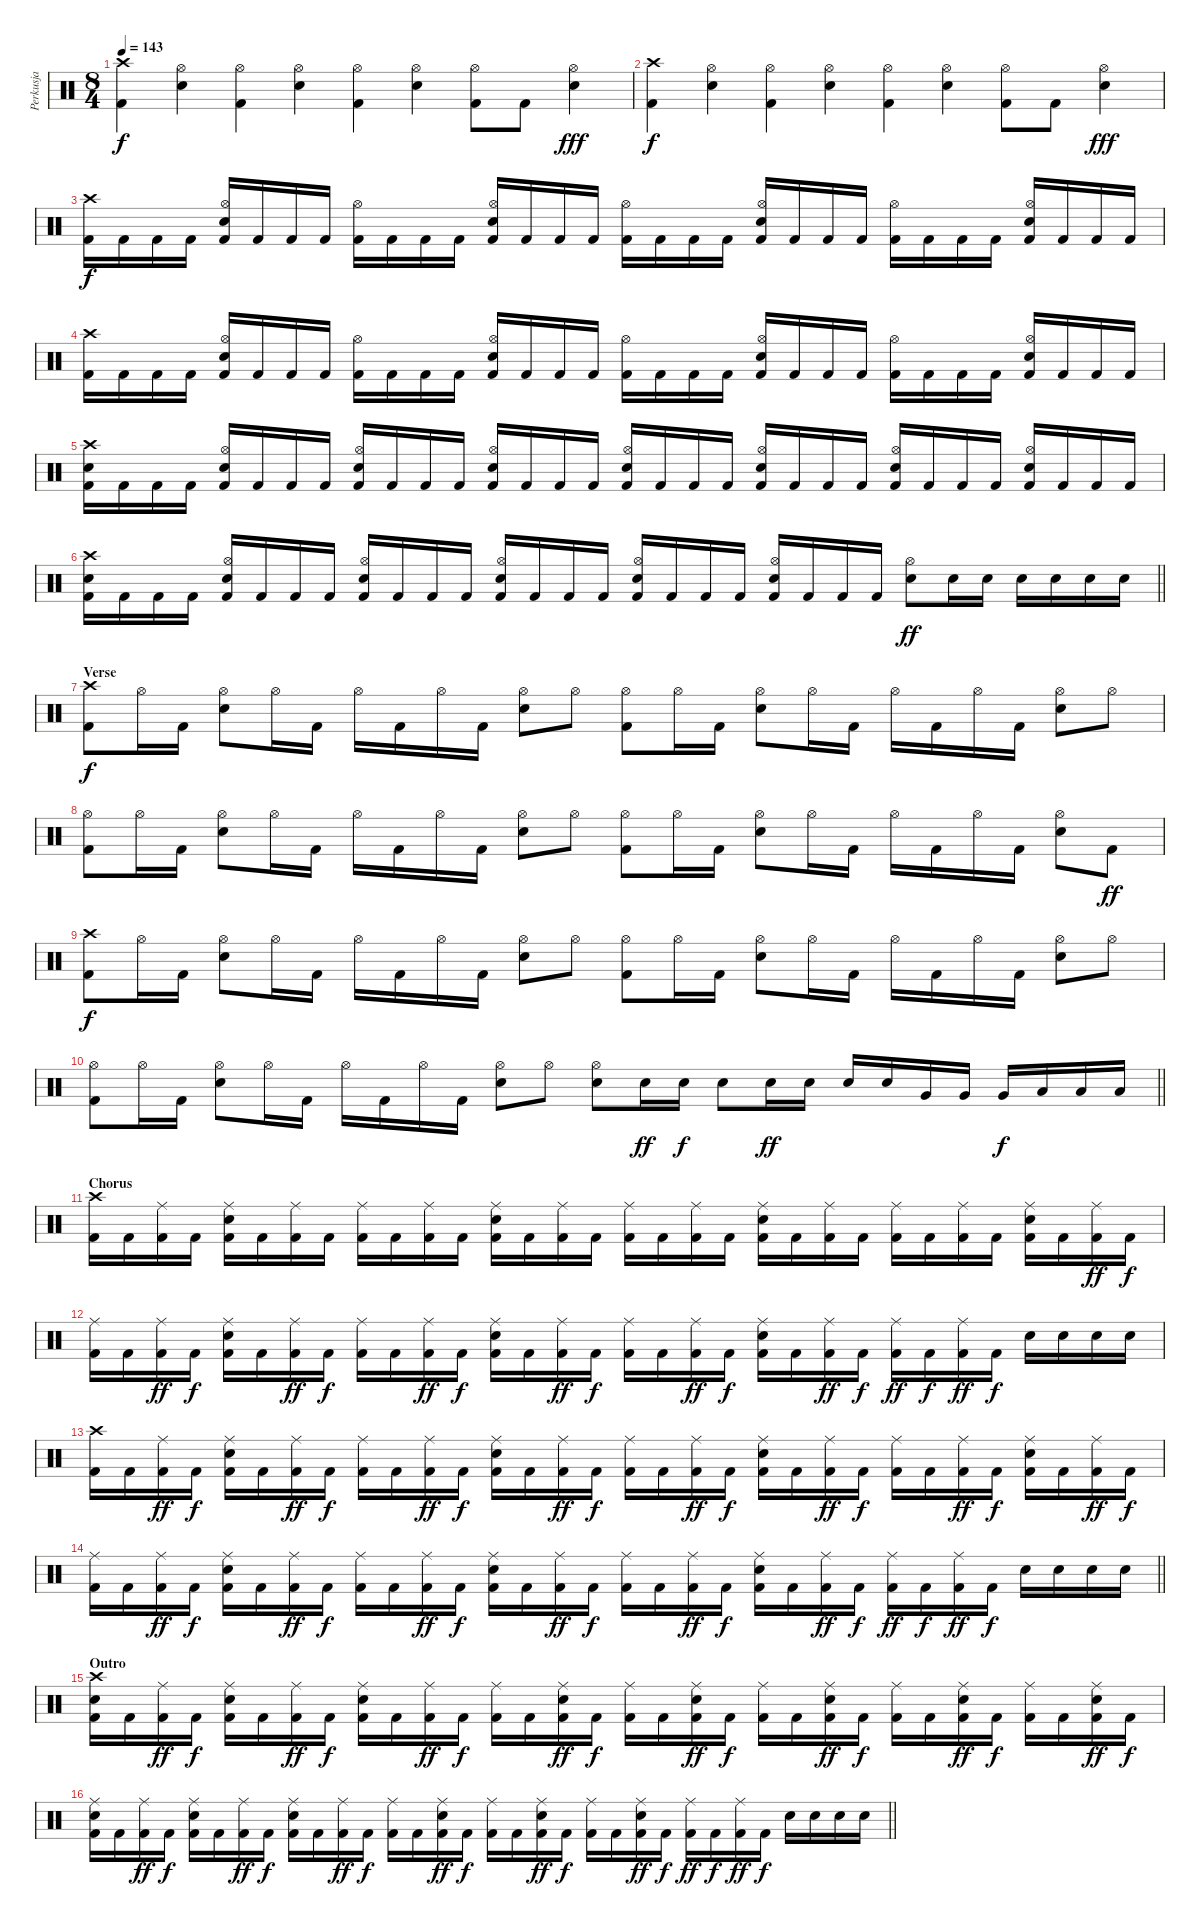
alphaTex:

\track ("Perkusja" "Perkusja") {instrument percussion}
\staff {score}
\articulation defaults
\ts (8 4)
\tempo 143
\clef neutral
\ks c
("Crash high (hit)" "Kick (hit) 2").4{dy f} ("Hi-Hat (open)" "Snare (hit) 2").4 ("Hi-Hat (open)" "Kick (hit) 2").4 ("Hi-Hat (open)" "Snare (hit) 2").4 ("Hi-Hat (open)" "Kick (hit) 2").4 ("Hi-Hat (open)" "Snare (hit) 2").4 ("Hi-Hat (open)" "Kick (hit) 2").8 "Kick (hit) 2".8 ("Hi-Hat (open)" "Snare (hit) 2").4{dy fff} |
("Crash high (hit)" "Kick (hit) 2").4{dy f} ("Hi-Hat (open)" "Snare (hit) 2").4 ("Hi-Hat (open)" "Kick (hit) 2").4 ("Hi-Hat (open)" "Snare (hit) 2").4 ("Hi-Hat (open)" "Kick (hit) 2").4 ("Hi-Hat (open)" "Snare (hit) 2").4 ("Hi-Hat (open)" "Kick (hit) 2").8 "Kick (hit) 2".8 ("Hi-Hat (open)" "Snare (hit) 2").4{dy fff} |
("Crash high (hit)" "Kick (hit) 2").16{dy f} "Kick (hit) 2".16 "Kick (hit) 2".16 "Kick (hit) 2".16 ("Hi-Hat (open)" "Snare (hit) 2" "Kick (hit) 2").16 "Kick (hit) 2".16 "Kick (hit) 2".16 "Kick (hit) 2".16 ("Hi-Hat (open)" "Kick (hit) 2").16 "Kick (hit) 2".16 "Kick (hit) 2".16 "Kick (hit) 2".16 ("Hi-Hat (open)" "Snare (hit) 2" "Kick (hit) 2").16 "Kick (hit) 2".16 "Kick (hit) 2".16 "Kick (hit) 2".16 ("Hi-Hat (open)" "Kick (hit) 2").16 "Kick (hit) 2".16 "Kick (hit) 2".16 "Kick (hit) 2".16 ("Hi-Hat (open)" "Snare (hit) 2" "Kick (hit) 2").16 "Kick (hit) 2".16 "Kick (hit) 2".16 "Kick (hit) 2".16 ("Hi-Hat (open)" "Kick (hit) 2").16 "Kick (hit) 2".16 "Kick (hit) 2".16 "Kick (hit) 2".16 ("Hi-Hat (open)" "Snare (hit) 2" "Kick (hit) 2").16 "Kick (hit) 2".16 "Kick (hit) 2".16 "Kick (hit) 2".16 |
("Crash high (hit)" "Kick (hit) 2").16 "Kick (hit) 2".16 "Kick (hit) 2".16 "Kick (hit) 2".16 ("Hi-Hat (open)" "Snare (hit) 2" "Kick (hit) 2").16 "Kick (hit) 2".16 "Kick (hit) 2".16 "Kick (hit) 2".16 ("Hi-Hat (open)" "Kick (hit) 2").16 "Kick (hit) 2".16 "Kick (hit) 2".16 "Kick (hit) 2".16 ("Hi-Hat (open)" "Snare (hit) 2" "Kick (hit) 2").16 "Kick (hit) 2".16 "Kick (hit) 2".16 "Kick (hit) 2".16 ("Hi-Hat (open)" "Kick (hit) 2").16 "Kick (hit) 2".16 "Kick (hit) 2".16 "Kick (hit) 2".16 ("Hi-Hat (open)" "Snare (hit) 2" "Kick (hit) 2").16 "Kick (hit) 2".16 "Kick (hit) 2".16 "Kick (hit) 2".16 ("Hi-Hat (open)" "Kick (hit) 2").16 "Kick (hit) 2".16 "Kick (hit) 2".16 "Kick (hit) 2".16 ("Hi-Hat (open)" "Snare (hit) 2" "Kick (hit) 2").16 "Kick (hit) 2".16 "Kick (hit) 2".16 "Kick (hit) 2".16 |
("Crash high (hit)" "Snare (hit) 2" "Kick (hit) 2").16 "Kick (hit) 2".16 "Kick (hit) 2".16 "Kick (hit) 2".16 ("Hi-Hat (open)" "Snare (hit) 2" "Kick (hit) 2").16 "Kick (hit) 2".16 "Kick (hit) 2".16 "Kick (hit) 2".16 ("Hi-Hat (open)" "Snare (hit) 2" "Kick (hit) 2").16 "Kick (hit) 2".16 "Kick (hit) 2".16 "Kick (hit) 2".16 ("Hi-Hat (open)" "Snare (hit) 2" "Kick (hit) 2").16 "Kick (hit) 2".16 "Kick (hit) 2".16 "Kick (hit) 2".16 ("Hi-Hat (open)" "Snare (hit) 2" "Kick (hit) 2").16 "Kick (hit) 2".16 "Kick (hit) 2".16 "Kick (hit) 2".16 ("Hi-Hat (open)" "Snare (hit) 2" "Kick (hit) 2").16 "Kick (hit) 2".16 "Kick (hit) 2".16 "Kick (hit) 2".16 ("Hi-Hat (open)" "Snare (hit) 2" "Kick (hit) 2").16 "Kick (hit) 2".16 "Kick (hit) 2".16 "Kick (hit) 2".16 ("Hi-Hat (open)" "Snare (hit) 2" "Kick (hit) 2").16 "Kick (hit) 2".16 "Kick (hit) 2".16 "Kick (hit) 2".16 |
\barLineRight lightlight
("Crash high (hit)" "Snare (hit) 2" "Kick (hit) 2").16 "Kick (hit) 2".16 "Kick (hit) 2".16 "Kick (hit) 2".16 ("Hi-Hat (open)" "Snare (hit) 2" "Kick (hit) 2").16 "Kick (hit) 2".16 "Kick (hit) 2".16 "Kick (hit) 2".16 ("Hi-Hat (open)" "Snare (hit) 2" "Kick (hit) 2").16 "Kick (hit) 2".16 "Kick (hit) 2".16 "Kick (hit) 2".16 ("Hi-Hat (open)" "Snare (hit) 2" "Kick (hit) 2").16 "Kick (hit) 2".16 "Kick (hit) 2".16 "Kick (hit) 2".16 ("Hi-Hat (open)" "Snare (hit) 2" "Kick (hit) 2").16 "Kick (hit) 2".16 "Kick (hit) 2".16 "Kick (hit) 2".16 ("Hi-Hat (open)" "Snare (hit) 2" "Kick (hit) 2").16 "Kick (hit) 2".16 "Kick (hit) 2".16 "Kick (hit) 2".16 ("Hi-Hat (open)" "Snare (hit) 2").8{dy ff} "Snare (hit) 2".16 "Snare (hit) 2".16 "Snare (hit) 2".16 "Snare (hit) 2".16 "Snare (hit) 2".16 "Snare (hit) 2".16 |
\section ("" "Verse")
("Crash high (hit)" "Kick (hit) 2").8{dy f} "Hi-Hat (open)".16 "Kick (hit) 2".16 ("Hi-Hat (open)" "Snare (hit) 2").8 "Hi-Hat (open)".16 "Kick (hit) 2".16 "Hi-Hat (open)".16 "Kick (hit) 2".16 "Hi-Hat (open)".16 "Kick (hit) 2".16 ("Hi-Hat (open)" "Snare (hit) 2").8 "Hi-Hat (open)".8 ("Hi-Hat (open)" "Kick (hit) 2").8 "Hi-Hat (open)".16 "Kick (hit) 2".16 ("Hi-Hat (open)" "Snare (hit) 2").8 "Hi-Hat (open)".16 "Kick (hit) 2".16 "Hi-Hat (open)".16 "Kick (hit) 2".16 "Hi-Hat (open)".16 "Kick (hit) 2".16 ("Hi-Hat (open)" "Snare (hit) 2").8 "Hi-Hat (open)".8 |
("Hi-Hat (open)" "Kick (hit) 2").8 "Hi-Hat (open)".16 "Kick (hit) 2".16 ("Hi-Hat (open)" "Snare (hit) 2").8 "Hi-Hat (open)".16 "Kick (hit) 2".16 "Hi-Hat (open)".16 "Kick (hit) 2".16 "Hi-Hat (open)".16 "Kick (hit) 2".16 ("Hi-Hat (open)" "Snare (hit) 2").8 "Hi-Hat (open)".8 ("Hi-Hat (open)" "Kick (hit) 2").8 "Hi-Hat (open)".16 "Kick (hit) 2".16 ("Hi-Hat (open)" "Snare (hit) 2").8 "Hi-Hat (open)".16 "Kick (hit) 2".16 "Hi-Hat (open)".16 "Kick (hit) 2".16 "Hi-Hat (open)".16 "Kick (hit) 2".16 ("Hi-Hat (open)" "Snare (hit) 2").8 "Kick (hit) 2".8{dy ff} |
("Crash high (hit)" "Kick (hit) 2").8{dy f} "Hi-Hat (open)".16 "Kick (hit) 2".16 ("Hi-Hat (open)" "Snare (hit) 2").8 "Hi-Hat (open)".16 "Kick (hit) 2".16 "Hi-Hat (open)".16 "Kick (hit) 2".16 "Hi-Hat (open)".16 "Kick (hit) 2".16 ("Hi-Hat (open)" "Snare (hit) 2").8 "Hi-Hat (open)".8 ("Hi-Hat (open)" "Kick (hit) 2").8 "Hi-Hat (open)".16 "Kick (hit) 2".16 ("Hi-Hat (open)" "Snare (hit) 2").8 "Hi-Hat (open)".16 "Kick (hit) 2".16 "Hi-Hat (open)".16 "Kick (hit) 2".16 "Hi-Hat (open)".16 "Kick (hit) 2".16 ("Hi-Hat (open)" "Snare (hit) 2").8 "Hi-Hat (open)".8 |
\barLineRight lightlight
("Hi-Hat (open)" "Kick (hit) 2").8 "Hi-Hat (open)".16 "Kick (hit) 2".16 ("Hi-Hat (open)" "Snare (hit) 2").8 "Hi-Hat (open)".16 "Kick (hit) 2".16 "Hi-Hat (open)".16 "Kick (hit) 2".16 "Hi-Hat (open)".16 "Kick (hit) 2".16 ("Hi-Hat (open)" "Snare (hit) 2").8 "Hi-Hat (open)".8 ("Hi-Hat (open)" "Snare (hit) 2").8 "Snare (hit) 2".16{dy ff} "Snare (hit) 2".16{dy f} "Snare (hit) 2".8 "Snare (hit) 2".16{dy ff} "Snare (hit) 2".16 "Snare (hit) 2".16 "Snare (hit) 2".16 "Very Low Tom (hit)".16 "Very Low Tom (hit)".16 "Very Low Tom (hit)".16{dy f} "Low Floor Tom (hit)".16 "Low Floor Tom (hit)".16 "Low Floor Tom (hit)".16 |
\section ("" "Chorus")
("Crash high (hit)" "Kick (hit) 2").16 "Kick (hit) 2".16 ("Ride (middle)" "Kick (hit) 2").16 "Kick (hit) 2".16 ("Ride (middle)" "Snare (hit) 2" "Kick (hit) 2").16 "Kick (hit) 2".16 ("Ride (middle)" "Kick (hit) 2").16 "Kick (hit) 2".16 ("Ride (middle)" "Kick (hit) 2").16 "Kick (hit) 2".16 ("Ride (middle)" "Kick (hit) 2").16 "Kick (hit) 2".16 ("Ride (middle)" "Snare (hit) 2" "Kick (hit) 2").16 "Kick (hit) 2".16 ("Ride (middle)" "Kick (hit) 2").16 "Kick (hit) 2".16 ("Ride (middle)" "Kick (hit) 2").16 "Kick (hit) 2".16 ("Ride (middle)" "Kick (hit) 2").16 "Kick (hit) 2".16 ("Ride (middle)" "Snare (hit) 2" "Kick (hit) 2").16 "Kick (hit) 2".16 ("Ride (middle)" "Kick (hit) 2").16 "Kick (hit) 2".16 ("Ride (middle)" "Kick (hit) 2").16 "Kick (hit) 2".16 ("Ride (middle)" "Kick (hit) 2").16 "Kick (hit) 2".16 ("Ride (middle)" "Snare (hit) 2" "Kick (hit) 2").16 "Kick (hit) 2".16 ("Ride (middle)" "Kick (hit) 2").16{dy ff} "Kick (hit) 2".16{dy f} |
("Ride (middle)" "Kick (hit) 2").16 "Kick (hit) 2".16 ("Ride (middle)" "Kick (hit) 2").16{dy ff} "Kick (hit) 2".16{dy f} ("Ride (middle)" "Snare (hit) 2" "Kick (hit) 2").16 "Kick (hit) 2".16 ("Ride (middle)" "Kick (hit) 2").16{dy ff} "Kick (hit) 2".16{dy f} ("Ride (middle)" "Kick (hit) 2").16 "Kick (hit) 2".16 ("Ride (middle)" "Kick (hit) 2").16{dy ff} "Kick (hit) 2".16{dy f} ("Ride (middle)" "Snare (hit) 2" "Kick (hit) 2").16 "Kick (hit) 2".16 ("Ride (middle)" "Kick (hit) 2").16{dy ff} "Kick (hit) 2".16{dy f} ("Ride (middle)" "Kick (hit) 2").16 "Kick (hit) 2".16 ("Ride (middle)" "Kick (hit) 2").16{dy ff} "Kick (hit) 2".16{dy f} ("Ride (middle)" "Snare (hit) 2" "Kick (hit) 2").16 "Kick (hit) 2".16 ("Ride (middle)" "Kick (hit) 2").16{dy ff} "Kick (hit) 2".16{dy f} ("Ride (middle)" "Kick (hit) 2").16{dy ff} "Kick (hit) 2".16{dy f} ("Ride (middle)" "Kick (hit) 2").16{dy ff} "Kick (hit) 2".16{dy f} "Snare (hit) 2".16 "Snare (hit) 2".16 "Snare (hit) 2".16 "Snare (hit) 2".16 |
("Crash high (hit)" "Kick (hit) 2").16 "Kick (hit) 2".16 ("Ride (middle)" "Kick (hit) 2").16{dy ff} "Kick (hit) 2".16{dy f} ("Ride (middle)" "Snare (hit) 2" "Kick (hit) 2").16 "Kick (hit) 2".16 ("Ride (middle)" "Kick (hit) 2").16{dy ff} "Kick (hit) 2".16{dy f} ("Ride (middle)" "Kick (hit) 2").16 "Kick (hit) 2".16 ("Ride (middle)" "Kick (hit) 2").16{dy ff} "Kick (hit) 2".16{dy f} ("Ride (middle)" "Snare (hit) 2" "Kick (hit) 2").16 "Kick (hit) 2".16 ("Ride (middle)" "Kick (hit) 2").16{dy ff} "Kick (hit) 2".16{dy f} ("Ride (middle)" "Kick (hit) 2").16 "Kick (hit) 2".16 ("Ride (middle)" "Kick (hit) 2").16{dy ff} "Kick (hit) 2".16{dy f} ("Ride (middle)" "Snare (hit) 2" "Kick (hit) 2").16 "Kick (hit) 2".16 ("Ride (middle)" "Kick (hit) 2").16{dy ff} "Kick (hit) 2".16{dy f} ("Ride (middle)" "Kick (hit) 2").16 "Kick (hit) 2".16 ("Ride (middle)" "Kick (hit) 2").16{dy ff} "Kick (hit) 2".16{dy f} ("Ride (middle)" "Snare (hit) 2" "Kick (hit) 2").16 "Kick (hit) 2".16 ("Ride (middle)" "Kick (hit) 2").16{dy ff} "Kick (hit) 2".16{dy f} |
\barLineRight lightlight
("Ride (middle)" "Kick (hit) 2").16 "Kick (hit) 2".16 ("Ride (middle)" "Kick (hit) 2").16{dy ff} "Kick (hit) 2".16{dy f} ("Ride (middle)" "Snare (hit) 2" "Kick (hit) 2").16 "Kick (hit) 2".16 ("Ride (middle)" "Kick (hit) 2").16{dy ff} "Kick (hit) 2".16{dy f} ("Ride (middle)" "Kick (hit) 2").16 "Kick (hit) 2".16 ("Ride (middle)" "Kick (hit) 2").16{dy ff} "Kick (hit) 2".16{dy f} ("Ride (middle)" "Snare (hit) 2" "Kick (hit) 2").16 "Kick (hit) 2".16 ("Ride (middle)" "Kick (hit) 2").16{dy ff} "Kick (hit) 2".16{dy f} ("Ride (middle)" "Kick (hit) 2").16 "Kick (hit) 2".16 ("Ride (middle)" "Kick (hit) 2").16{dy ff} "Kick (hit) 2".16{dy f} ("Ride (middle)" "Snare (hit) 2" "Kick (hit) 2").16 "Kick (hit) 2".16 ("Ride (middle)" "Kick (hit) 2").16{dy ff} "Kick (hit) 2".16{dy f} ("Ride (middle)" "Kick (hit) 2").16{dy ff} "Kick (hit) 2".16{dy f} ("Ride (middle)" "Kick (hit) 2").16{dy ff} "Kick (hit) 2".16{dy f} "Snare (hit) 2".16 "Snare (hit) 2".16 "Snare (hit) 2".16 "Snare (hit) 2".16 |
\section ("" "Outro")
("Crash high (hit)" "Snare (hit) 2" "Kick (hit) 2").16 "Kick (hit) 2".16 ("Ride (middle)" "Kick (hit) 2").16{dy ff} "Kick (hit) 2".16{dy f} ("Ride (middle)" "Snare (hit) 2" "Kick (hit) 2").16 "Kick (hit) 2".16 ("Ride (middle)" "Kick (hit) 2").16{dy ff} "Kick (hit) 2".16{dy f} ("Ride (middle)" "Snare (hit) 2" "Kick (hit) 2").16 "Kick (hit) 2".16 ("Ride (middle)" "Kick (hit) 2").16{dy ff} "Kick (hit) 2".16{dy f} ("Ride (middle)" "Kick (hit) 2").16 "Kick (hit) 2".16 ("Ride (middle)" "Snare (hit) 2" "Kick (hit) 2").16{dy ff} "Kick (hit) 2".16{dy f} ("Ride (middle)" "Kick (hit) 2").16 "Kick (hit) 2".16 ("Ride (middle)" "Snare (hit) 2" "Kick (hit) 2").16{dy ff} "Kick (hit) 2".16{dy f} ("Ride (middle)" "Kick (hit) 2").16 "Kick (hit) 2".16 ("Ride (middle)" "Snare (hit) 2" "Kick (hit) 2").16{dy ff} "Kick (hit) 2".16{dy f} ("Ride (middle)" "Kick (hit) 2").16 "Kick (hit) 2".16 ("Ride (middle)" "Snare (hit) 2" "Kick (hit) 2").16{dy ff} "Kick (hit) 2".16{dy f} ("Ride (middle)" "Kick (hit) 2").16 "Kick (hit) 2".16 ("Ride (middle)" "Snare (hit) 2" "Kick (hit) 2").16{dy ff} "Kick (hit) 2".16{dy f} |
\barLineRight lightlight
("Ride (middle)" "Snare (hit) 2" "Kick (hit) 2").16 "Kick (hit) 2".16 ("Ride (middle)" "Kick (hit) 2").16{dy ff} "Kick (hit) 2".16{dy f} ("Ride (middle)" "Snare (hit) 2" "Kick (hit) 2").16 "Kick (hit) 2".16 ("Ride (middle)" "Kick (hit) 2").16{dy ff} "Kick (hit) 2".16{dy f} ("Ride (middle)" "Snare (hit) 2" "Kick (hit) 2").16 "Kick (hit) 2".16 ("Ride (middle)" "Kick (hit) 2").16{dy ff} "Kick (hit) 2".16{dy f} ("Ride (middle)" "Kick (hit) 2").16 "Kick (hit) 2".16 ("Ride (middle)" "Snare (hit) 2" "Kick (hit) 2").16{dy ff} "Kick (hit) 2".16{dy f} ("Ride (middle)" "Kick (hit) 2").16 "Kick (hit) 2".16 ("Ride (middle)" "Snare (hit) 2" "Kick (hit) 2").16{dy ff} "Kick (hit) 2".16{dy f} ("Ride (middle)" "Kick (hit) 2").16 "Kick (hit) 2".16 ("Ride (middle)" "Snare (hit) 2" "Kick (hit) 2").16{dy ff} "Kick (hit) 2".16{dy f} ("Ride (middle)" "Kick (hit) 2").16{dy ff} "Kick (hit) 2".16{dy f} ("Ride (middle)" "Kick (hit) 2").16{dy ff} "Kick (hit) 2".16{dy f} "Snare (hit) 2".16 "Snare (hit) 2".16 "Snare (hit) 2".16 "Snare (hit) 2".16
